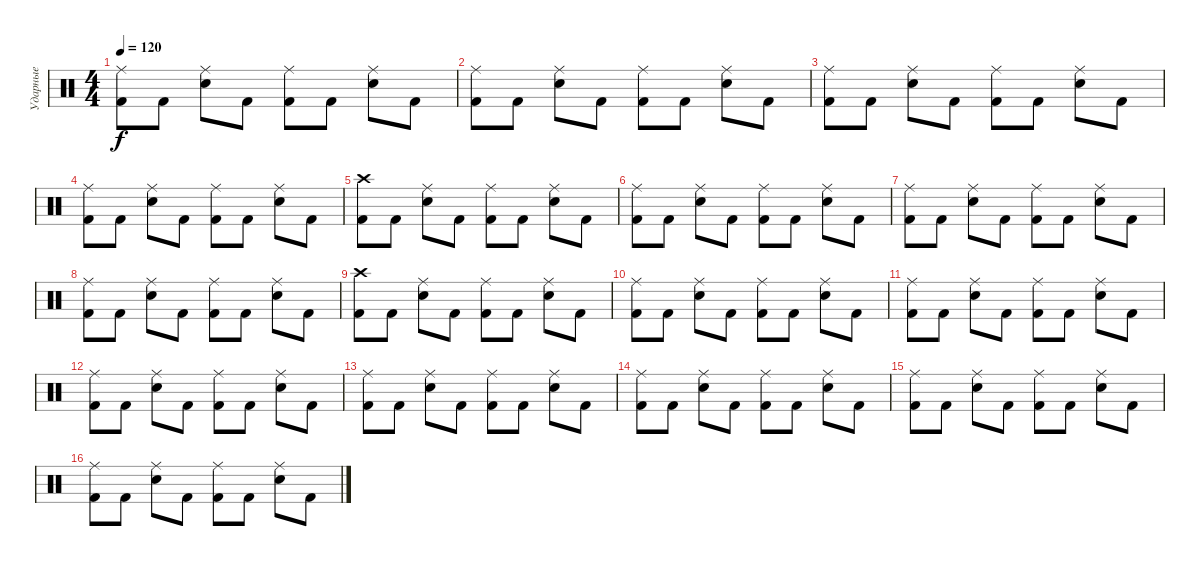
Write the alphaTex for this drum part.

\track ("Ударные" "Ударные") {instrument percussion}
\staff {score}
\articulation defaults
\ts (4 4)
\tempo 120
\clef neutral
\ks c
("Ride (middle)" "Kick (hit) 2").8{dy f} "Kick (hit) 2".8 ("Ride (middle)" "Snare (hit) 2").8 "Kick (hit) 2".8 ("Ride (middle)" "Kick (hit) 2").8 "Kick (hit) 2".8 ("Ride (middle)" "Snare (hit) 2").8 "Kick (hit) 2".8 |
("Ride (middle)" "Kick (hit) 2").8 "Kick (hit) 2".8 ("Ride (middle)" "Snare (hit) 2").8 "Kick (hit) 2".8 ("Ride (middle)" "Kick (hit) 2").8 "Kick (hit) 2".8 ("Ride (middle)" "Snare (hit) 2").8 "Kick (hit) 2".8 |
("Ride (middle)" "Kick (hit) 2").8 "Kick (hit) 2".8 ("Ride (middle)" "Snare (hit) 2").8 "Kick (hit) 2".8 ("Ride (middle)" "Kick (hit) 2").8 "Kick (hit) 2".8 ("Ride (middle)" "Snare (hit) 2").8 "Kick (hit) 2".8 |
("Ride (middle)" "Kick (hit) 2").8 "Kick (hit) 2".8 ("Ride (middle)" "Snare (hit) 2").8 "Kick (hit) 2".8 ("Ride (middle)" "Kick (hit) 2").8 "Kick (hit) 2".8 ("Ride (middle)" "Snare (hit) 2").8 "Kick (hit) 2".8 |
("Crash high (hit)" "Kick (hit) 2").8 "Kick (hit) 2".8 ("Ride (middle)" "Snare (hit) 2").8 "Kick (hit) 2".8 ("Ride (middle)" "Kick (hit) 2").8 "Kick (hit) 2".8 ("Ride (middle)" "Snare (hit) 2").8 "Kick (hit) 2".8 |
("Ride (middle)" "Kick (hit) 2").8 "Kick (hit) 2".8 ("Ride (middle)" "Snare (hit) 2").8 "Kick (hit) 2".8 ("Ride (middle)" "Kick (hit) 2").8 "Kick (hit) 2".8 ("Ride (middle)" "Snare (hit) 2").8 "Kick (hit) 2".8 |
("Ride (middle)" "Kick (hit) 2").8 "Kick (hit) 2".8 ("Ride (middle)" "Snare (hit) 2").8 "Kick (hit) 2".8 ("Ride (middle)" "Kick (hit) 2").8 "Kick (hit) 2".8 ("Ride (middle)" "Snare (hit) 2").8 "Kick (hit) 2".8 |
("Ride (middle)" "Kick (hit) 2").8 "Kick (hit) 2".8 ("Ride (middle)" "Snare (hit) 2").8 "Kick (hit) 2".8 ("Ride (middle)" "Kick (hit) 2").8 "Kick (hit) 2".8 ("Ride (middle)" "Snare (hit) 2").8 "Kick (hit) 2".8 |
("Crash high (hit)" "Kick (hit) 2").8 "Kick (hit) 2".8 ("Ride (middle)" "Snare (hit) 2").8 "Kick (hit) 2".8 ("Ride (middle)" "Kick (hit) 2").8 "Kick (hit) 2".8 ("Ride (middle)" "Snare (hit) 2").8 "Kick (hit) 2".8 |
("Ride (middle)" "Kick (hit) 2").8 "Kick (hit) 2".8 ("Ride (middle)" "Snare (hit) 2").8 "Kick (hit) 2".8 ("Ride (middle)" "Kick (hit) 2").8 "Kick (hit) 2".8 ("Ride (middle)" "Snare (hit) 2").8 "Kick (hit) 2".8 |
("Ride (middle)" "Kick (hit) 2").8 "Kick (hit) 2".8 ("Ride (middle)" "Snare (hit) 2").8 "Kick (hit) 2".8 ("Ride (middle)" "Kick (hit) 2").8 "Kick (hit) 2".8 ("Ride (middle)" "Snare (hit) 2").8 "Kick (hit) 2".8 |
("Ride (middle)" "Kick (hit) 2").8 "Kick (hit) 2".8 ("Ride (middle)" "Snare (hit) 2").8 "Kick (hit) 2".8 ("Ride (middle)" "Kick (hit) 2").8 "Kick (hit) 2".8 ("Ride (middle)" "Snare (hit) 2").8 "Kick (hit) 2".8 |
("Ride (middle)" "Kick (hit) 2").8 "Kick (hit) 2".8 ("Ride (middle)" "Snare (hit) 2").8 "Kick (hit) 2".8 ("Ride (middle)" "Kick (hit) 2").8 "Kick (hit) 2".8 ("Ride (middle)" "Snare (hit) 2").8 "Kick (hit) 2".8 |
("Ride (middle)" "Kick (hit) 2").8 "Kick (hit) 2".8 ("Ride (middle)" "Snare (hit) 2").8 "Kick (hit) 2".8 ("Ride (middle)" "Kick (hit) 2").8 "Kick (hit) 2".8 ("Ride (middle)" "Snare (hit) 2").8 "Kick (hit) 2".8 |
("Ride (middle)" "Kick (hit) 2").8 "Kick (hit) 2".8 ("Ride (middle)" "Snare (hit) 2").8 "Kick (hit) 2".8 ("Ride (middle)" "Kick (hit) 2").8 "Kick (hit) 2".8 ("Ride (middle)" "Snare (hit) 2").8 "Kick (hit) 2".8 |
("Ride (middle)" "Kick (hit) 2").8 "Kick (hit) 2".8 ("Ride (middle)" "Snare (hit) 2").8 "Kick (hit) 2".8 ("Ride (middle)" "Kick (hit) 2").8 "Kick (hit) 2".8 ("Ride (middle)" "Snare (hit) 2").8 "Kick (hit) 2".8
